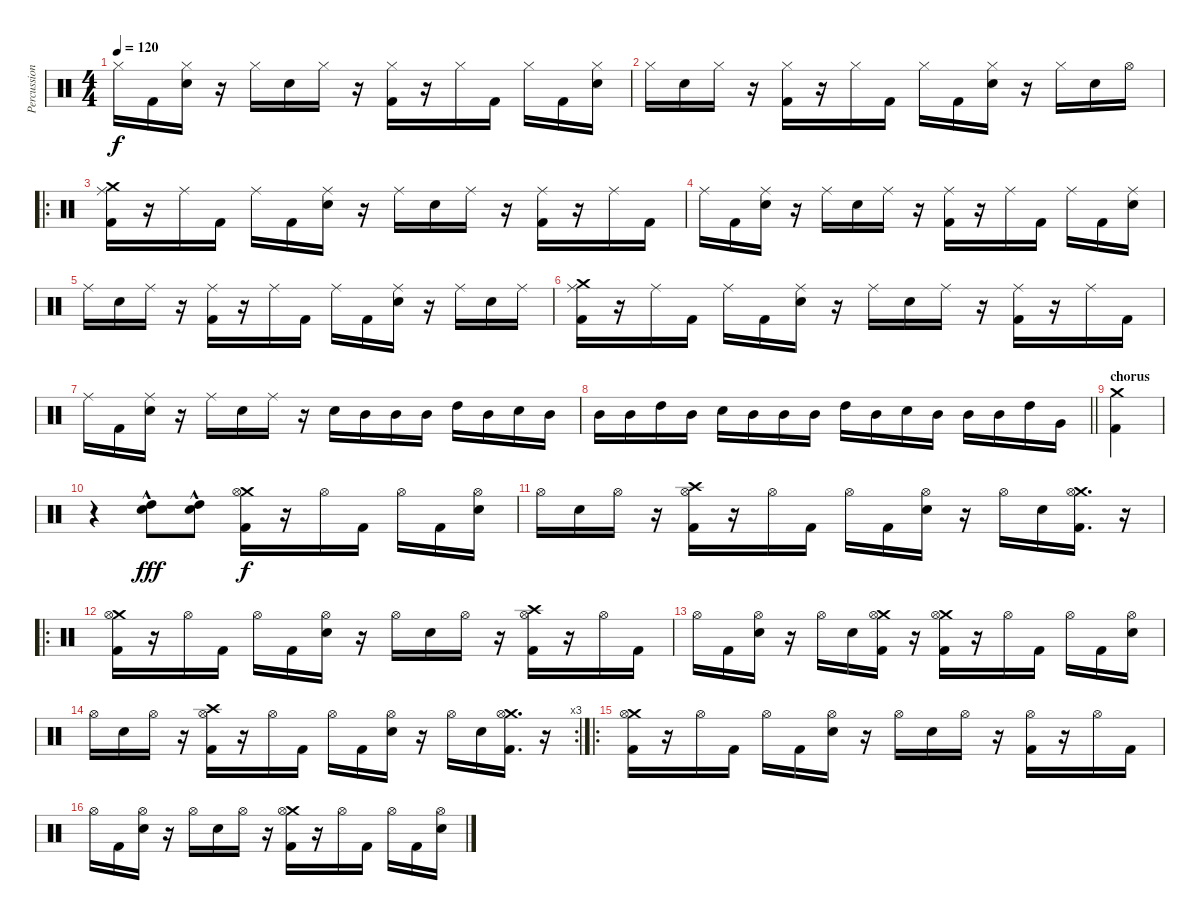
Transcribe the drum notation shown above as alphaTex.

\track ("Percussion" "Percussion") {instrument percussion}
\staff {score}
\articulation defaults
\ts (4 4)
\tempo 120
\clef neutral
\ks c "Hi-Hat (closed)".16{dy f} "Kick (hit) 2".16
("Hi-Hat (closed)" "Electric Snare (hit)").16 r.16 "Hi-Hat (closed)".16 "Electric Snare (hit)".16 "Hi-Hat (closed)".16 r.16 ("Hi-Hat (closed)" "Kick (hit) 2").16 r.16 "Hi-Hat (closed)".16 "Kick (hit) 2".16 "Hi-Hat (closed)".16 "Kick (hit) 2".16 ("Hi-Hat (closed)" "Electric Snare (hit)").16 |
"Hi-Hat (closed)".16 "Electric Snare (hit)".16 "Hi-Hat (closed)".16 r.16 ("Hi-Hat (closed)" "Kick (hit) 2").16 r.16 "Hi-Hat (closed)".16 "Kick (hit) 2".16 "Hi-Hat (closed)".16 "Kick (hit) 2".16 ("Hi-Hat (closed)" "Electric Snare (hit)").16 r.16 "Hi-Hat (closed)".16 "Electric Snare (hit)".16 "Hi-Hat (open)".16 |
\ro
("Crash medium (hit)" "Ride (middle)" "Kick (hit) 2").16 r.16 "Ride (middle)".16 "Kick (hit) 2".16 "Ride (middle)".16 "Kick (hit) 2".16 ("Ride (middle)" "Electric Snare (hit)").16 r.16 "Ride (middle)".16 "Electric Snare (hit)".16 "Ride (middle)".16 r.16 ("Ride (middle)" "Kick (hit) 2").16 r.16 "Ride (middle)".16 "Kick (hit) 2".16 |
"Ride (middle)".16 "Kick (hit) 2".16 ("Ride (middle)" "Electric Snare (hit)").16 r.16 "Ride (middle)".16 "Electric Snare (hit)".16 "Ride (middle)".16 r.16 ("Ride (middle)" "Kick (hit) 2").16 r.16 "Ride (middle)".16 "Kick (hit) 2".16 "Ride (middle)".16 "Kick (hit) 2".16 ("Ride (middle)" "Electric Snare (hit)").16 |
"Ride (middle)".16 "Electric Snare (hit)".16 "Ride (middle)".16 r.16 ("Ride (middle)" "Kick (hit) 2").16 r.16 "Ride (middle)".16 "Kick (hit) 2".16 "Ride (middle)".16 "Kick (hit) 2".16 ("Ride (middle)" "Electric Snare (hit)").16 r.16 "Ride (middle)".16 "Electric Snare (hit)".16 "Ride (middle)".16 |
("Crash medium (hit)" "Ride (middle)" "Kick (hit) 2").16 r.16 "Ride (middle)".16 "Kick (hit) 2".16 "Ride (middle)".16 "Kick (hit) 2".16 ("Ride (middle)" "Electric Snare (hit)").16 r.16 "Ride (middle)".16 "Electric Snare (hit)".16 "Ride (middle)".16 r.16 ("Ride (middle)" "Kick (hit) 2").16 r.16 "Ride (middle)".16 "Kick (hit) 2".16 |
"Ride (middle)".16 "Kick (hit) 2".16 ("Ride (middle)" "Electric Snare (hit)").16 r.16 "Ride (middle)".16 "Electric Snare (hit)".16 "Ride (middle)".16 r.16 "Electric Snare (hit)".16 "Mid Tom (hit)".16 "Mid Tom (hit)".16 "Mid Tom (hit)".16 "High Tom (hit)".16 "Mid Tom (hit)".16 "Electric Snare (hit)".16 "Mid Tom (hit)".16 |
\barLineRight lightlight "Mid Tom (hit)".16 "Mid Tom (hit)".16 "High Tom (hit)".16 "Mid Tom (hit)".16 "Electric Snare (hit)".16 "Mid Tom (hit)".16 "Mid Tom (hit)".16 "Mid Tom (hit)".16 "High Tom (hit)".16 "Mid Tom (hit)".16 "Electric Snare (hit)".16 "Mid Tom (hit)".16 "Mid Tom (hit)".16 "Mid Tom (hit)".16 "High Tom (hit)".16 "Very Low Tom (hit)".16
|
\section ("" "chorus")
("Crash medium (hit)" "Kick (hit) 2").4 |
r.4 ("Electric Snare (hit)" "High Tom (hit)"{hac}).8{dy fff} ("Electric Snare (hit)" "High Tom (hit)"{hac}).8 ("Crash medium (hit)" "Hi-Hat (open)" "Kick (hit) 2").16{dy f} r.16 "Hi-Hat (open)".16 "Kick (hit) 2".16 "Hi-Hat (open)".16 "Kick (hit) 2".16 ("Hi-Hat (open)" "Electric Snare (hit)").16 |
"Hi-Hat (open)".16 "Electric Snare (hit)".16 "Hi-Hat (open)".16 r.16 ("Crash high (hit)" "Hi-Hat (open)" "Kick (hit) 2").16 r.16 "Hi-Hat (open)".16 "Kick (hit) 2".16 "Hi-Hat (open)".16 "Kick (hit) 2".16 ("Hi-Hat (open)" "Electric Snare (hit)").16 r.16 "Hi-Hat (open)".16 "Electric Snare (hit)".16 ("Crash medium (hit)" "Hi-Hat (open)" "Kick (hit) 2").16{d} r.16 |
\ro
("Crash medium (hit)" "Hi-Hat (open)" "Kick (hit) 2").16 r.16 "Hi-Hat (open)".16 "Kick (hit) 2".16 "Hi-Hat (open)".16 "Kick (hit) 2".16 ("Hi-Hat (open)" "Electric Snare (hit)").16 r.16 "Hi-Hat (open)".16 "Electric Snare (hit)".16 "Hi-Hat (open)".16 r.16 ("Crash high (hit)" "Hi-Hat (open)" "Kick (hit) 2").16 r.16 "Hi-Hat (open)".16 "Kick (hit) 2".16 |
"Hi-Hat (open)".16 "Kick (hit) 2".16 ("Hi-Hat (open)" "Electric Snare (hit)").16 r.16 "Hi-Hat (open)".16 "Electric Snare (hit)".16 ("Crash medium (hit)" "Hi-Hat (open)" "Kick (hit) 2").16 r.16 ("Crash medium (hit)" "Hi-Hat (open)" "Kick (hit) 2").16 r.16 "Hi-Hat (open)".16 "Kick (hit) 2".16 "Hi-Hat (open)".16 "Kick (hit) 2".16 ("Hi-Hat (open)" "Electric Snare (hit)").16 |
\rc 3 "Hi-Hat (open)".16 "Electric Snare (hit)".16 "Hi-Hat (open)".16
r.16 ("Crash high (hit)" "Hi-Hat (open)" "Kick (hit) 2").16 r.16 "Hi-Hat (open)".16 "Kick (hit) 2".16 "Hi-Hat (open)".16 "Kick (hit) 2".16 ("Hi-Hat (open)" "Electric Snare (hit)").16 r.16 "Hi-Hat (open)".16 "Electric Snare (hit)".16 ("Crash medium (hit)" "Hi-Hat (open)" "Kick (hit) 2").16{d} r.16 |
\ro
("Crash medium (hit)" "Hi-Hat (open)" "Kick (hit) 2").16 r.16 "Hi-Hat (open)".16 "Kick (hit) 2".16 "Hi-Hat (open)".16 "Kick (hit) 2".16 ("Hi-Hat (open)" "Electric Snare (hit)").16 r.16 "Hi-Hat (open)".16 "Electric Snare (hit)".16 "Hi-Hat (open)".16 r.16 ("Hi-Hat (open)" "Kick (hit) 2").16 r.16 "Hi-Hat (open)".16 "Kick (hit) 2".16 |
"Hi-Hat (open)".16 "Kick (hit) 2".16 ("Hi-Hat (open)" "Electric Snare (hit)").16 r.16 "Hi-Hat (open)".16 "Electric Snare (hit)".16 "Hi-Hat (open)".16 r.16 ("Crash medium (hit)" "Hi-Hat (open)" "Kick (hit) 2").16 r.16 "Hi-Hat (open)".16 "Kick (hit) 2".16 "Hi-Hat (open)".16 "Kick (hit) 2".16 ("Hi-Hat (open)" "Electric Snare (hit)").16
